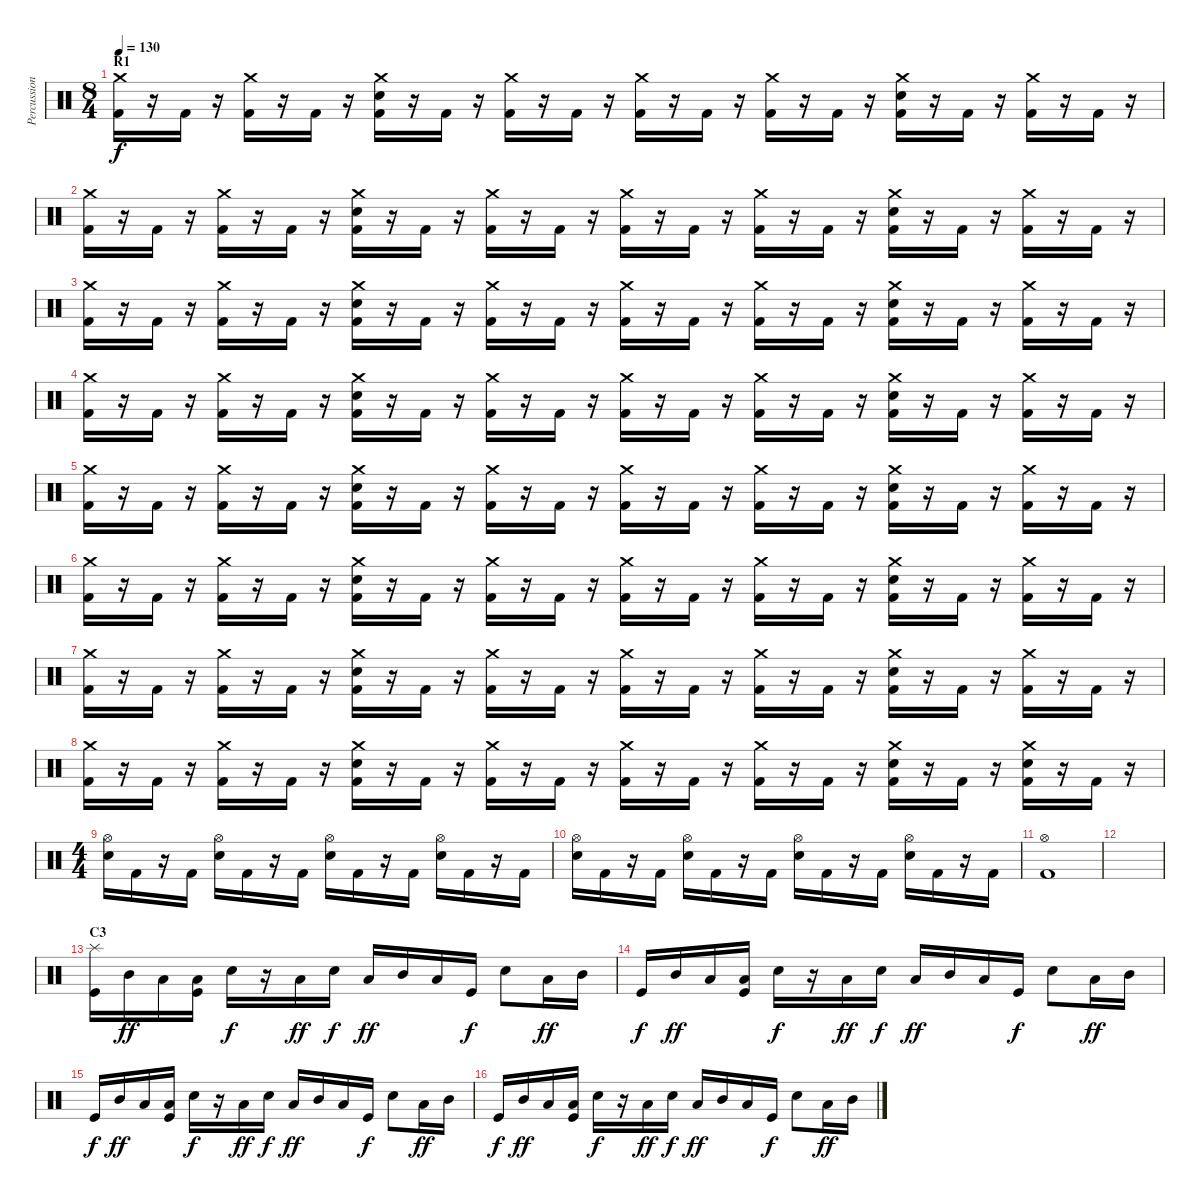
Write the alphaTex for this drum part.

\track ("Percussions" "Percussion") {instrument percussion}
\staff {score}
\articulation defaults
\ts (8 4)
\section ("" "R1")
\tempo 130
\clef neutral
\ks c
("Crash medium (hit)" "Kick (hit) 2").16{dy f} r.16 "Kick (hit) 2".16 r.16 ("Crash medium (hit)" "Kick (hit) 2").16 r.16 "Kick (hit) 2".16 r.16 ("Crash medium (hit)" "Snare (hit) 2" "Kick (hit) 2").16 r.16 "Kick (hit) 2".16 r.16 ("Crash medium (hit)" "Kick (hit) 2").16 r.16 "Kick (hit) 2".16 r.16 ("Crash medium (hit)" "Kick (hit) 2").16 r.16 "Kick (hit) 2".16 r.16 ("Crash medium (hit)" "Kick (hit) 2").16 r.16 "Kick (hit) 2".16 r.16 ("Crash medium (hit)" "Snare (hit) 2" "Kick (hit) 2").16 r.16 "Kick (hit) 2".16 r.16 ("Crash medium (hit)" "Kick (hit) 2").16 r.16 "Kick (hit) 2".16 r.16 |
("Crash medium (hit)" "Kick (hit) 2").16 r.16 "Kick (hit) 2".16 r.16 ("Crash medium (hit)" "Kick (hit) 2").16 r.16 "Kick (hit) 2".16 r.16 ("Crash medium (hit)" "Snare (hit) 2" "Kick (hit) 2").16 r.16 "Kick (hit) 2".16 r.16 ("Crash medium (hit)" "Kick (hit) 2").16 r.16 "Kick (hit) 2".16 r.16 ("Crash medium (hit)" "Kick (hit) 2").16 r.16 "Kick (hit) 2".16 r.16 ("Crash medium (hit)" "Kick (hit) 2").16 r.16 "Kick (hit) 2".16 r.16 ("Crash medium (hit)" "Snare (hit) 2" "Kick (hit) 2").16 r.16 "Kick (hit) 2".16 r.16 ("Crash medium (hit)" "Kick (hit) 2").16 r.16 "Kick (hit) 2".16 r.16 |
("Crash medium (hit)" "Kick (hit) 2").16 r.16 "Kick (hit) 2".16 r.16 ("Crash medium (hit)" "Kick (hit) 2").16 r.16 "Kick (hit) 2".16 r.16 ("Crash medium (hit)" "Snare (hit) 2" "Kick (hit) 2").16 r.16 "Kick (hit) 2".16 r.16 ("Crash medium (hit)" "Kick (hit) 2").16 r.16 "Kick (hit) 2".16 r.16 ("Crash medium (hit)" "Kick (hit) 2").16 r.16 "Kick (hit) 2".16 r.16 ("Crash medium (hit)" "Kick (hit) 2").16 r.16 "Kick (hit) 2".16 r.16 ("Crash medium (hit)" "Snare (hit) 2" "Kick (hit) 2").16 r.16 "Kick (hit) 2".16 r.16 ("Crash medium (hit)" "Kick (hit) 2").16 r.16 "Kick (hit) 2".16 r.16 |
("Crash medium (hit)" "Kick (hit) 2").16 r.16 "Kick (hit) 2".16 r.16 ("Crash medium (hit)" "Kick (hit) 2").16 r.16 "Kick (hit) 2".16 r.16 ("Crash medium (hit)" "Snare (hit) 2" "Kick (hit) 2").16 r.16 "Kick (hit) 2".16 r.16 ("Crash medium (hit)" "Kick (hit) 2").16 r.16 "Kick (hit) 2".16 r.16 ("Crash medium (hit)" "Kick (hit) 2").16 r.16 "Kick (hit) 2".16 r.16 ("Crash medium (hit)" "Kick (hit) 2").16 r.16 "Kick (hit) 2".16 r.16 ("Crash medium (hit)" "Snare (hit) 2" "Kick (hit) 2").16 r.16 "Kick (hit) 2".16 r.16 ("Crash medium (hit)" "Kick (hit) 2").16 r.16 "Kick (hit) 2".16 r.16 |
("Crash medium (hit)" "Kick (hit) 2").16 r.16 "Kick (hit) 2".16 r.16 ("Crash medium (hit)" "Kick (hit) 2").16 r.16 "Kick (hit) 2".16 r.16 ("Crash medium (hit)" "Snare (hit) 2" "Kick (hit) 2").16 r.16 "Kick (hit) 2".16 r.16 ("Crash medium (hit)" "Kick (hit) 2").16 r.16 "Kick (hit) 2".16 r.16 ("Crash medium (hit)" "Kick (hit) 2").16 r.16 "Kick (hit) 2".16 r.16 ("Crash medium (hit)" "Kick (hit) 2").16 r.16 "Kick (hit) 2".16 r.16 ("Crash medium (hit)" "Snare (hit) 2" "Kick (hit) 2").16 r.16 "Kick (hit) 2".16 r.16 ("Crash medium (hit)" "Kick (hit) 2").16 r.16 "Kick (hit) 2".16 r.16 |
("Crash medium (hit)" "Kick (hit) 2").16 r.16 "Kick (hit) 2".16 r.16 ("Crash medium (hit)" "Kick (hit) 2").16 r.16 "Kick (hit) 2".16 r.16 ("Crash medium (hit)" "Snare (hit) 2" "Kick (hit) 2").16 r.16 "Kick (hit) 2".16 r.16 ("Crash medium (hit)" "Kick (hit) 2").16 r.16 "Kick (hit) 2".16 r.16 ("Crash medium (hit)" "Kick (hit) 2").16 r.16 "Kick (hit) 2".16 r.16 ("Crash medium (hit)" "Kick (hit) 2").16 r.16 "Kick (hit) 2".16 r.16 ("Crash medium (hit)" "Snare (hit) 2" "Kick (hit) 2").16 r.16 "Kick (hit) 2".16 r.16 ("Crash medium (hit)" "Kick (hit) 2").16 r.16 "Kick (hit) 2".16 r.16 |
("Crash medium (hit)" "Kick (hit) 2").16 r.16 "Kick (hit) 2".16 r.16 ("Crash medium (hit)" "Kick (hit) 2").16 r.16 "Kick (hit) 2".16 r.16 ("Crash medium (hit)" "Snare (hit) 2" "Kick (hit) 2").16 r.16 "Kick (hit) 2".16 r.16 ("Crash medium (hit)" "Kick (hit) 2").16 r.16 "Kick (hit) 2".16 r.16 ("Crash medium (hit)" "Kick (hit) 2").16 r.16 "Kick (hit) 2".16 r.16 ("Crash medium (hit)" "Kick (hit) 2").16 r.16 "Kick (hit) 2".16 r.16 ("Crash medium (hit)" "Snare (hit) 2" "Kick (hit) 2").16 r.16 "Kick (hit) 2".16 r.16 ("Crash medium (hit)" "Kick (hit) 2").16 r.16 "Kick (hit) 2".16 r.16 |
("Crash medium (hit)" "Kick (hit) 2").16 r.16 "Kick (hit) 2".16 r.16 ("Crash medium (hit)" "Kick (hit) 2").16 r.16 "Kick (hit) 2".16 r.16 ("Crash medium (hit)" "Snare (hit) 2" "Kick (hit) 2").16 r.16 "Kick (hit) 2".16 r.16 ("Crash medium (hit)" "Kick (hit) 2").16 r.16 "Kick (hit) 2".16 r.16 ("Crash medium (hit)" "Kick (hit) 2").16 r.16 "Kick (hit) 2".16 r.16 ("Crash medium (hit)" "Kick (hit) 2").16 r.16 "Kick (hit) 2".16 r.16 ("Crash medium (hit)" "Snare (hit) 2" "Kick (hit) 2").16 r.16 "Kick (hit) 2".16 r.16 ("Crash medium (hit)" "Snare (hit) 2" "Kick (hit) 2").16 r.16 "Kick (hit) 2".16 r.16 |
\ts (4 4)
("Hi-Hat (open)" "Snare (hit) 2").16 "Kick (hit) 2".16 r.16 "Kick (hit) 2".16 ("Hi-Hat (open)" "Snare (hit) 2").16 "Kick (hit) 2".16 r.16 "Kick (hit) 2".16 ("Hi-Hat (open)" "Snare (hit) 2").16 "Kick (hit) 2".16 r.16 "Kick (hit) 2".16 ("Hi-Hat (open)" "Snare (hit) 2").16 "Kick (hit) 2".16 r.16 "Kick (hit) 2".16 |
("Hi-Hat (open)" "Snare (hit) 2").16 "Kick (hit) 2".16 r.16 "Kick (hit) 2".16 ("Hi-Hat (open)" "Snare (hit) 2").16 "Kick (hit) 2".16 r.16 "Kick (hit) 2".16 ("Hi-Hat (open)" "Snare (hit) 2").16 "Kick (hit) 2".16 r.16 "Kick (hit) 2".16 ("Hi-Hat (open)" "Snare (hit) 2").16 "Kick (hit) 2".16 r.16 "Kick (hit) 2".16 |
("Hi-Hat (open)" "Kick (hit) 2").1 |
|
\section ("" "C3")
("Splash (hit)" "Kick (hit)").16 "Mid Tom (hit)".16{dy ff} "Low Tom (hit)".16 ("Low Tom (hit)" "Kick (hit)").16 "Snare (hit) 2".16{dy f} r.16 "Low Tom (hit)".16{dy ff} "Snare (hit) 2".16{dy f} "Low Tom (hit)".16{dy ff} "Mid Tom (hit)".16 "Low Tom (hit)".16 "Kick (hit)".16{dy f} "Snare (hit) 2".8 "Low Tom (hit)".16{dy ff} "Mid Tom (hit)".16 |
"Kick (hit)".16{dy f} "Mid Tom (hit)".16{dy ff} "Low Tom (hit)".16 ("Low Tom (hit)" "Kick (hit)").16 "Snare (hit) 2".16{dy f} r.16 "Low Tom (hit)".16{dy ff} "Snare (hit) 2".16{dy f} "Low Tom (hit)".16{dy ff} "Mid Tom (hit)".16 "Low Tom (hit)".16 "Kick (hit)".16{dy f} "Snare (hit) 2".8 "Low Tom (hit)".16{dy ff} "Mid Tom (hit)".16 |
"Kick (hit)".16{dy f} "Mid Tom (hit)".16{dy ff} "Low Tom (hit)".16 ("Low Tom (hit)" "Kick (hit)").16 "Snare (hit) 2".16{dy f} r.16 "Low Tom (hit)".16{dy ff} "Snare (hit) 2".16{dy f} "Low Tom (hit)".16{dy ff} "Mid Tom (hit)".16 "Low Tom (hit)".16 "Kick (hit)".16{dy f} "Snare (hit) 2".8 "Low Tom (hit)".16{dy ff} "Mid Tom (hit)".16 |
"Kick (hit)".16{dy f} "Mid Tom (hit)".16{dy ff} "Low Tom (hit)".16 ("Low Tom (hit)" "Kick (hit)").16 "Snare (hit) 2".16{dy f} r.16 "Low Tom (hit)".16{dy ff} "Snare (hit) 2".16{dy f} "Low Tom (hit)".16{dy ff} "Mid Tom (hit)".16 "Low Tom (hit)".16 "Kick (hit)".16{dy f} "Snare (hit) 2".8 "Low Tom (hit)".16{dy ff} "Mid Tom (hit)".16
